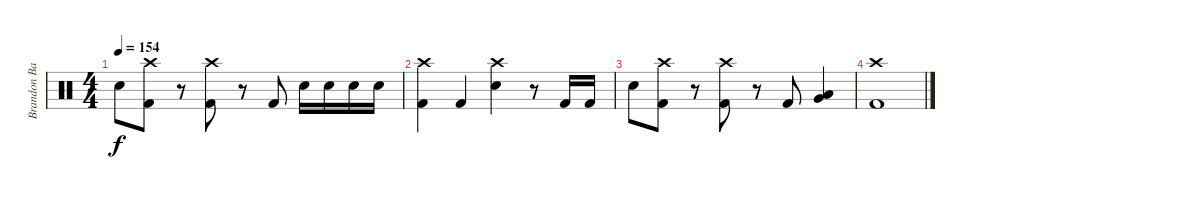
\track ("Brandon Barnes - Drums" "Brandon Ba") {instrument percussion}
\staff {score}
\articulation defaults
\ts (4 4)
\tempo 154
\clef neutral
\ks c "Snare (hit) 2".8{dy f}
("Kick (hit) 2" "Crash high (hit)").8 r.8 ("Crash high (hit)" "Kick (hit) 2").8 r.8 "Kick (hit) 2".8 "Snare (hit) 2".16 "Snare (hit) 2".16 "Snare (hit) 2".16 "Snare (hit) 2".16 |
("Crash high (hit)" "Kick (hit) 2").4 "Kick (hit) 2".4 ("Crash high (hit)" "Snare (hit) 2").4 r.8 "Kick (hit) 2".16 "Kick (hit) 2".16 |
"Snare (hit) 2".8 ("Kick (hit) 2" "Crash high (hit)").8 r.8 ("Crash high (hit)" "Kick (hit) 2").8 r.8 "Kick (hit) 2".8 ("Very Low Tom (hit)" "Low Tom (hit)").4 |
("Crash high (hit)" "Kick (hit) 2").1
